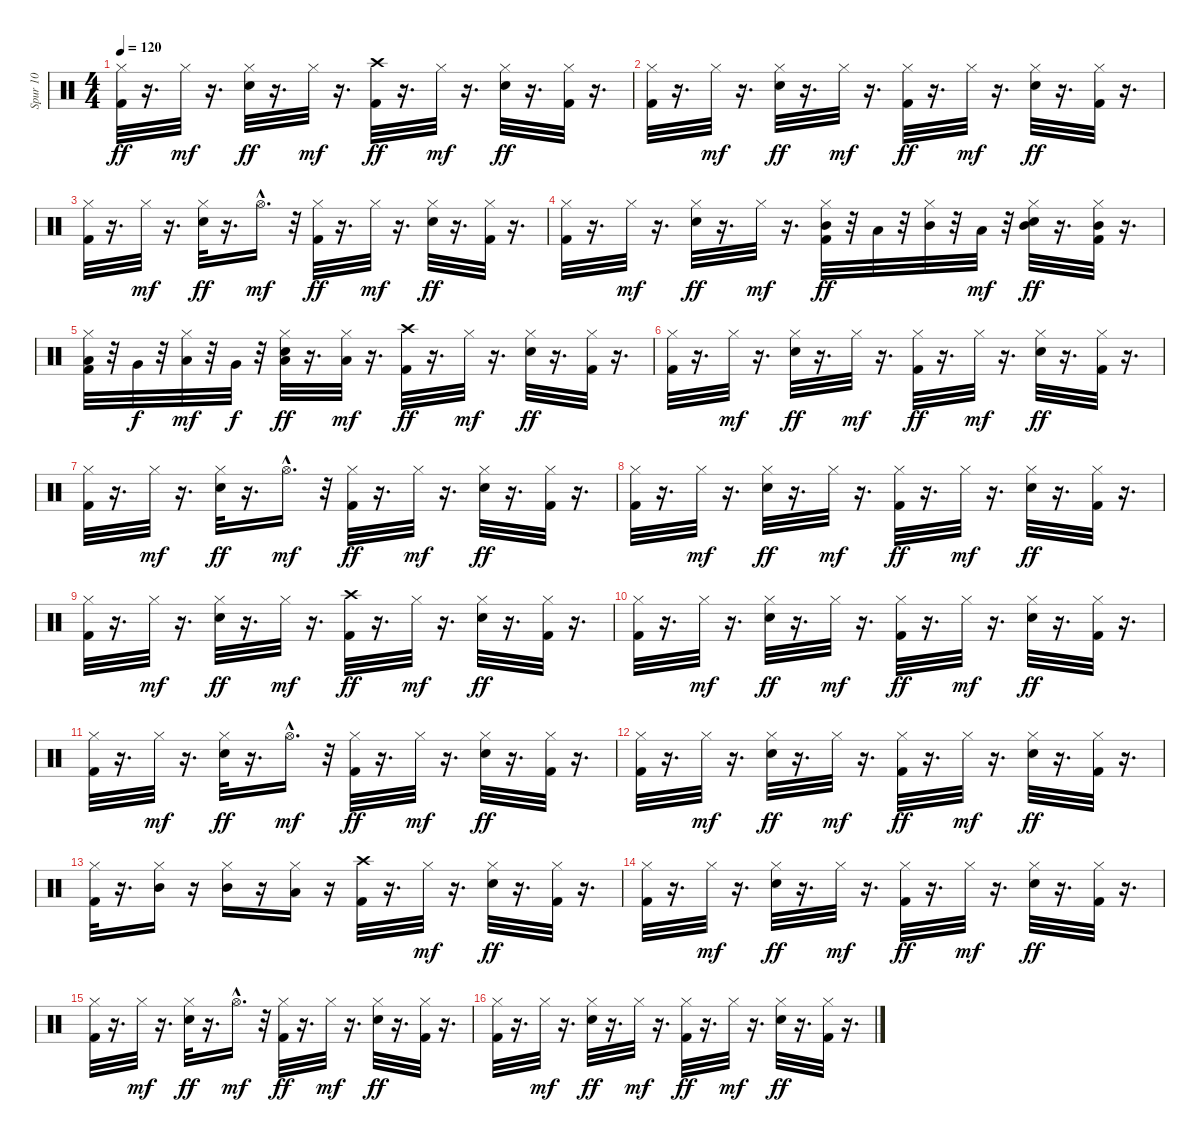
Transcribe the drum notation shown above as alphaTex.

\track ("Spur 10" "Spur 10") {instrument percussion}
\staff {score}
\articulation defaults
\ts (4 4)
\tempo 120
\clef neutral
\ks c
("Hi-Hat (closed)" "Kick (hit) 2").32{dy ff} r.16{d} "Hi-Hat (closed)".32{dy mf} r.16{d} ("Hi-Hat (closed)" "Snare (hit) 2").32{dy ff} r.16{d} "Hi-Hat (closed)".32{dy mf} r.16{d} ("Crash high (hit)" "Kick (hit) 2").32{dy ff} r.16{d} "Hi-Hat (closed)".32{dy mf} r.16{d} ("Hi-Hat (closed)" "Snare (hit) 2").32{dy ff} r.16{d} ("Hi-Hat (closed)" "Kick (hit) 2").32 r.16{d} |
("Hi-Hat (closed)" "Kick (hit) 2").32 r.16{d} "Hi-Hat (closed)".32{dy mf} r.16{d} ("Hi-Hat (closed)" "Snare (hit) 2").32{dy ff} r.16{d} "Hi-Hat (closed)".32{dy mf} r.16{d} ("Hi-Hat (closed)" "Kick (hit) 2").32{dy ff} r.16{d} "Hi-Hat (closed)".32{dy mf} r.16{d} ("Hi-Hat (closed)" "Snare (hit) 2").32{dy ff} r.16{d} ("Hi-Hat (closed)" "Kick (hit) 2").32 r.16{d} |
("Hi-Hat (closed)" "Kick (hit) 2").32 r.16{d} "Hi-Hat (closed)".32{dy mf} r.16{d} ("Hi-Hat (closed)" "Snare (hit) 2").32{dy ff} r.16{d} "Hi-Hat (open)"{hac}.16{d dy mf} r.32 ("Hi-Hat (closed)" "Kick (hit) 2").32{dy ff} r.16{d} "Hi-Hat (closed)".32{dy mf} r.16{d} ("Hi-Hat (closed)" "Snare (hit) 2").32{dy ff} r.16{d} ("Hi-Hat (closed)" "Kick (hit) 2").32 r.16{d} |
("Hi-Hat (closed)" "Kick (hit) 2").32 r.16{d} "Hi-Hat (closed)".32{dy mf} r.16{d} ("Hi-Hat (closed)" "Snare (hit) 2").32{dy ff} r.16{d} "Hi-Hat (closed)".32{dy mf} r.16{d} ("Hi-Hat (closed)" "Kick (hit) 2" "Mid Tom (hit)").32{dy ff} r.32 "Low Tom (hit)".32 r.32 ("Hi-Hat (closed)" "Mid Tom (hit)").32 r.32 "Low Tom (hit)".32{dy mf} r.32 ("Hi-Hat (closed)" "Snare (hit) 2" "Mid Tom (hit)").32{dy ff} r.16{d} ("Hi-Hat (closed)" "Kick (hit) 2" "Mid Tom (hit)").32 r.16{d} |
("Hi-Hat (closed)" "Kick (hit) 2" "Low Tom (hit)").32 r.32 "Very Low Tom (hit)".32{dy f} r.32 ("Hi-Hat (closed)" "Low Tom (hit)").32{dy mf} r.32 "Very Low Tom (hit)".32{dy f} r.32 ("Hi-Hat (closed)" "Low Tom (hit)" "Snare (hit) 2").32{dy ff} r.16{d} ("Hi-Hat (closed)" "Low Tom (hit)").32{dy mf} r.16{d} ("Crash high (hit)" "Kick (hit) 2").32{dy ff} r.16{d} "Hi-Hat (closed)".32{dy mf} r.16{d} ("Hi-Hat (closed)" "Snare (hit) 2").32{dy ff} r.16{d} ("Hi-Hat (closed)" "Kick (hit) 2").32 r.16{d} |
("Hi-Hat (closed)" "Kick (hit) 2").32 r.16{d} "Hi-Hat (closed)".32{dy mf} r.16{d} ("Hi-Hat (closed)" "Snare (hit) 2").32{dy ff} r.16{d} "Hi-Hat (closed)".32{dy mf} r.16{d} ("Hi-Hat (closed)" "Kick (hit) 2").32{dy ff} r.16{d} "Hi-Hat (closed)".32{dy mf} r.16{d} ("Hi-Hat (closed)" "Snare (hit) 2").32{dy ff} r.16{d} ("Hi-Hat (closed)" "Kick (hit) 2").32 r.16{d} |
("Hi-Hat (closed)" "Kick (hit) 2").32 r.16{d} "Hi-Hat (closed)".32{dy mf} r.16{d} ("Hi-Hat (closed)" "Snare (hit) 2").32{dy ff} r.16{d} "Hi-Hat (open)"{hac}.16{d dy mf} r.32 ("Hi-Hat (closed)" "Kick (hit) 2").32{dy ff} r.16{d} "Hi-Hat (closed)".32{dy mf} r.16{d} ("Hi-Hat (closed)" "Snare (hit) 2").32{dy ff} r.16{d} ("Hi-Hat (closed)" "Kick (hit) 2").32 r.16{d} |
("Hi-Hat (closed)" "Kick (hit) 2").32 r.16{d} "Hi-Hat (closed)".32{dy mf} r.16{d} ("Hi-Hat (closed)" "Snare (hit) 2").32{dy ff} r.16{d} "Hi-Hat (closed)".32{dy mf} r.16{d} ("Hi-Hat (closed)" "Kick (hit) 2").32{dy ff} r.16{d} "Hi-Hat (closed)".32{dy mf} r.16{d} ("Hi-Hat (closed)" "Snare (hit) 2").32{dy ff} r.16{d} ("Hi-Hat (closed)" "Kick (hit) 2").32 r.16{d} |
("Hi-Hat (closed)" "Kick (hit) 2").32 r.16{d} "Hi-Hat (closed)".32{dy mf} r.16{d} ("Hi-Hat (closed)" "Snare (hit) 2").32{dy ff} r.16{d} "Hi-Hat (closed)".32{dy mf} r.16{d} ("Crash high (hit)" "Kick (hit) 2").32{dy ff} r.16{d} "Hi-Hat (closed)".32{dy mf} r.16{d} ("Hi-Hat (closed)" "Snare (hit) 2").32{dy ff} r.16{d} ("Hi-Hat (closed)" "Kick (hit) 2").32 r.16{d} |
("Hi-Hat (closed)" "Kick (hit) 2").32 r.16{d} "Hi-Hat (closed)".32{dy mf} r.16{d} ("Hi-Hat (closed)" "Snare (hit) 2").32{dy ff} r.16{d} "Hi-Hat (closed)".32{dy mf} r.16{d} ("Hi-Hat (closed)" "Kick (hit) 2").32{dy ff} r.16{d} "Hi-Hat (closed)".32{dy mf} r.16{d} ("Hi-Hat (closed)" "Snare (hit) 2").32{dy ff} r.16{d} ("Hi-Hat (closed)" "Kick (hit) 2").32 r.16{d} |
("Hi-Hat (closed)" "Kick (hit) 2").32 r.16{d} "Hi-Hat (closed)".32{dy mf} r.16{d} ("Hi-Hat (closed)" "Snare (hit) 2").32{dy ff} r.16{d} "Hi-Hat (open)"{hac}.16{d dy mf} r.32 ("Hi-Hat (closed)" "Kick (hit) 2").32{dy ff} r.16{d} "Hi-Hat (closed)".32{dy mf} r.16{d} ("Hi-Hat (closed)" "Snare (hit) 2").32{dy ff} r.16{d} ("Hi-Hat (closed)" "Kick (hit) 2").32 r.16{d} |
("Hi-Hat (closed)" "Kick (hit) 2").32 r.16{d} "Hi-Hat (closed)".32{dy mf} r.16{d} ("Hi-Hat (closed)" "Snare (hit) 2").32{dy ff} r.16{d} "Hi-Hat (closed)".32{dy mf} r.16{d} ("Hi-Hat (closed)" "Kick (hit) 2").32{dy ff} r.16{d} "Hi-Hat (closed)".32{dy mf} r.16{d} ("Hi-Hat (closed)" "Snare (hit) 2").32{dy ff} r.16{d} ("Hi-Hat (closed)" "Kick (hit) 2").32 r.16{d} |
("Hi-Hat (closed)" "Kick (hit) 2").32 r.16{d} ("Hi-Hat (closed)" "Mid Tom (hit)").16 r.16 ("Hi-Hat (closed)" "Mid Tom (hit)").16 r.16 ("Hi-Hat (closed)" "Low Tom (hit)").16 r.16 ("Crash high (hit)" "Kick (hit) 2").32 r.16{d} "Hi-Hat (closed)".32{dy mf} r.16{d} ("Hi-Hat (closed)" "Snare (hit) 2").32{dy ff} r.16{d} ("Hi-Hat (closed)" "Kick (hit) 2").32 r.16{d} |
("Hi-Hat (closed)" "Kick (hit) 2").32 r.16{d} "Hi-Hat (closed)".32{dy mf} r.16{d} ("Hi-Hat (closed)" "Snare (hit) 2").32{dy ff} r.16{d} "Hi-Hat (closed)".32{dy mf} r.16{d} ("Hi-Hat (closed)" "Kick (hit) 2").32{dy ff} r.16{d} "Hi-Hat (closed)".32{dy mf} r.16{d} ("Hi-Hat (closed)" "Snare (hit) 2").32{dy ff} r.16{d} ("Hi-Hat (closed)" "Kick (hit) 2").32 r.16{d} |
("Hi-Hat (closed)" "Kick (hit) 2").32 r.16{d} "Hi-Hat (closed)".32{dy mf} r.16{d} ("Hi-Hat (closed)" "Snare (hit) 2").32{dy ff} r.16{d} "Hi-Hat (open)"{hac}.16{d dy mf} r.32 ("Hi-Hat (closed)" "Kick (hit) 2").32{dy ff} r.16{d} "Hi-Hat (closed)".32{dy mf} r.16{d} ("Hi-Hat (closed)" "Snare (hit) 2").32{dy ff} r.16{d} ("Hi-Hat (closed)" "Kick (hit) 2").32 r.16{d} |
("Hi-Hat (closed)" "Kick (hit) 2").32 r.16{d} "Hi-Hat (closed)".32{dy mf} r.16{d} ("Hi-Hat (closed)" "Snare (hit) 2").32{dy ff} r.16{d} "Hi-Hat (closed)".32{dy mf} r.16{d} ("Hi-Hat (closed)" "Kick (hit) 2").32{dy ff} r.16{d} "Hi-Hat (closed)".32{dy mf} r.16{d} ("Hi-Hat (closed)" "Snare (hit) 2").32{dy ff} r.16{d} ("Hi-Hat (closed)" "Kick (hit) 2").32 r.16{d}
